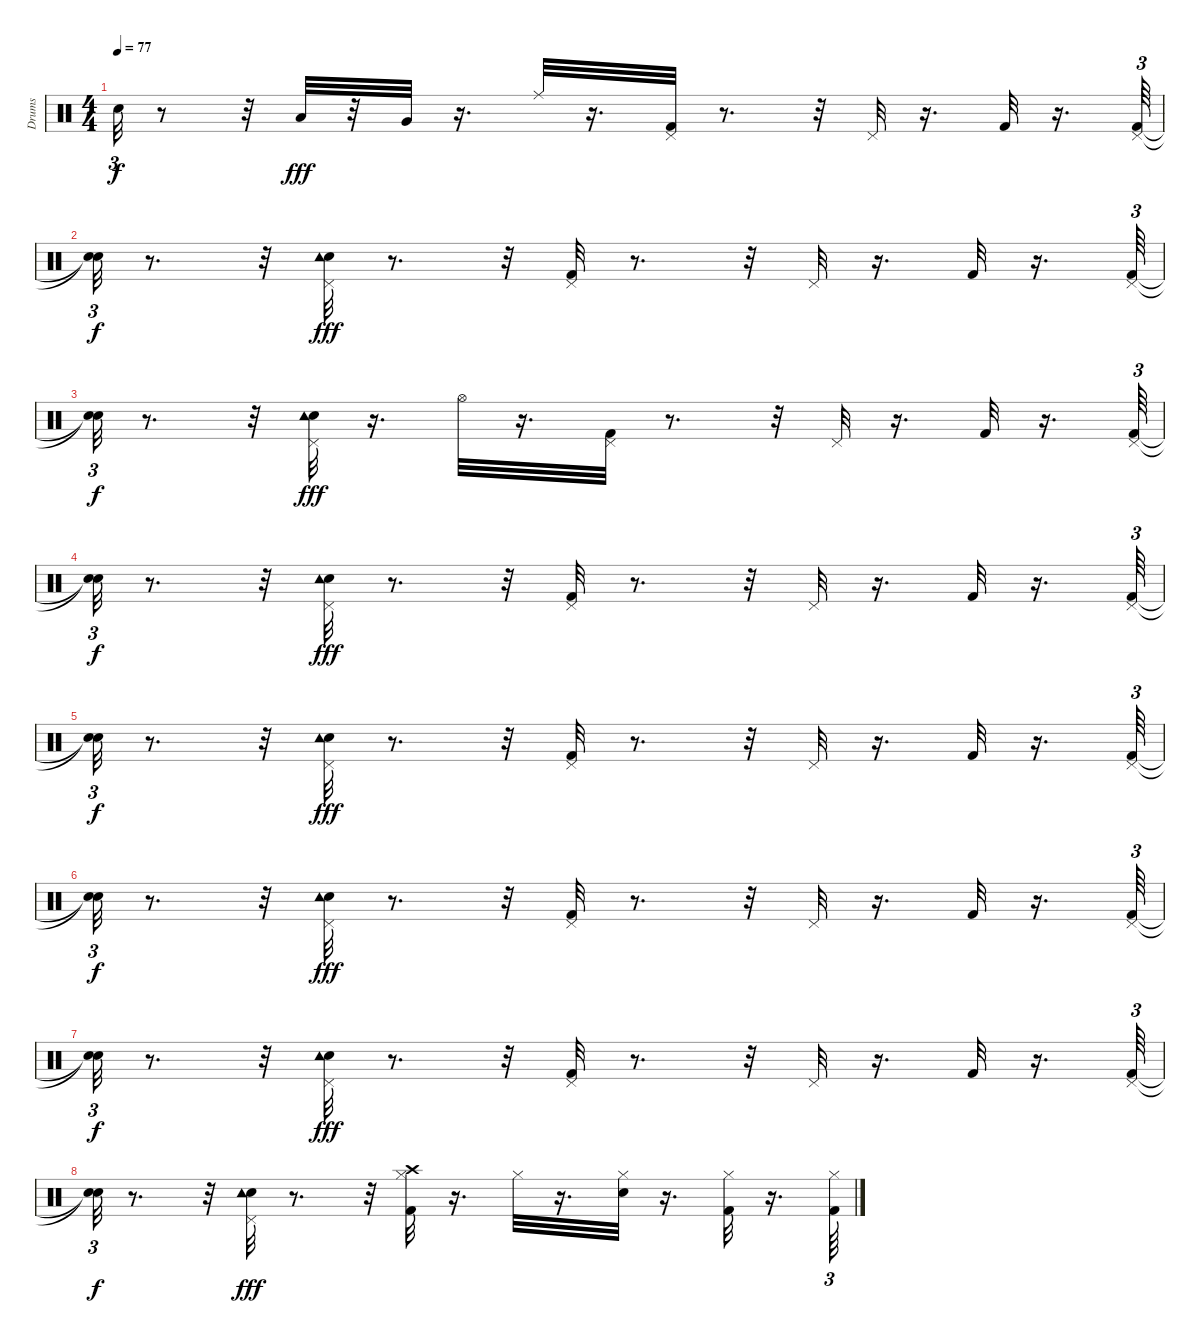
\track ("Drums   " "Drums   ") {instrument percussion}
\staff {score}
\articulation defaults
\ts (4 4)
\tempo 77
\clef neutral
\ks c "Snare (hit)"{t}.32{tu (3 2) dy f}
r.8 r.32 "Low Tom (hit)".32{dy fff} r.32 "Very Low Tom (hit)".32 r.16{d} "Ride (middle)".32 r.16{d} ("Kick (hit) 2" "Pedal Hi-Hat (hit)").32 r.8{d} r.32 "Pedal Hi-Hat (hit)".32 r.16{d} "Kick (hit) 2".32 r.16{d} ("Kick (hit) 2" "Pedal Hi-Hat (hit)").64{tu (3 2)} |
("Snare (hit)"{t} "Snare (hit)"{t}).32{tu (3 2) dy f} r.8{d} r.32 ("Snare (hit) 2" "Pedal Hi-Hat (hit)" "Tambourine (hit)").32{dy fff} r.8{d} r.32 ("Kick (hit) 2" "Pedal Hi-Hat (hit)").32 r.8{d} r.32 "Pedal Hi-Hat (hit)".32 r.16{d} "Kick (hit) 2".32 r.16{d} ("Kick (hit) 2" "Pedal Hi-Hat (hit)").64{tu (3 2)} |
("Snare (hit)"{t} "Snare (hit)"{t}).32{tu (3 2) dy f} r.8{d} r.32 ("Snare (hit) 2" "Pedal Hi-Hat (hit)" "Tambourine (hit)").32{dy fff} r.16{d} "Hi-Hat (open)".32 r.16{d} ("Kick (hit) 2" "Pedal Hi-Hat (hit)").32 r.8{d} r.32 "Pedal Hi-Hat (hit)".32 r.16{d} "Kick (hit) 2".32 r.16{d} ("Kick (hit) 2" "Pedal Hi-Hat (hit)").64{tu (3 2)} |
("Snare (hit)"{t} "Snare (hit)"{t}).32{tu (3 2) dy f} r.8{d} r.32 ("Snare (hit) 2" "Pedal Hi-Hat (hit)" "Tambourine (hit)").32{dy fff} r.8{d} r.32 ("Kick (hit) 2" "Pedal Hi-Hat (hit)").32 r.8{d} r.32 "Pedal Hi-Hat (hit)".32 r.16{d} "Kick (hit) 2".32 r.16{d} ("Kick (hit) 2" "Pedal Hi-Hat (hit)").64{tu (3 2)} |
("Snare (hit)"{t} "Snare (hit)"{t}).32{tu (3 2) dy f} r.8{d} r.32 ("Snare (hit) 2" "Pedal Hi-Hat (hit)" "Tambourine (hit)").32{dy fff} r.8{d} r.32 ("Kick (hit) 2" "Pedal Hi-Hat (hit)").32 r.8{d} r.32 "Pedal Hi-Hat (hit)".32 r.16{d} "Kick (hit) 2".32 r.16{d} ("Kick (hit) 2" "Pedal Hi-Hat (hit)").64{tu (3 2)} |
("Snare (hit)"{t} "Snare (hit)"{t}).32{tu (3 2) dy f} r.8{d} r.32 ("Snare (hit) 2" "Pedal Hi-Hat (hit)" "Tambourine (hit)").32{dy fff} r.8{d} r.32 ("Kick (hit) 2" "Pedal Hi-Hat (hit)").32 r.8{d} r.32 "Pedal Hi-Hat (hit)".32 r.16{d} "Kick (hit) 2".32 r.16{d} ("Kick (hit) 2" "Pedal Hi-Hat (hit)").64{tu (3 2)} |
("Snare (hit)"{t} "Snare (hit)"{t}).32{tu (3 2) dy f} r.8{d} r.32 ("Snare (hit) 2" "Pedal Hi-Hat (hit)" "Tambourine (hit)").32{dy fff} r.8{d} r.32 ("Kick (hit) 2" "Pedal Hi-Hat (hit)").32 r.8{d} r.32 "Pedal Hi-Hat (hit)".32 r.16{d} "Kick (hit) 2".32 r.16{d} ("Kick (hit) 2" "Pedal Hi-Hat (hit)").64{tu (3 2)} |
("Snare (hit)"{t} "Snare (hit)"{t}).32{tu (3 2) dy f} r.8{d} r.32 ("Snare (hit) 2" "Pedal Hi-Hat (hit)" "Tambourine (hit)").32{dy fff} r.8{d} r.32 ("Kick (hit) 2" "Hi-Hat (closed)" "Crash high (hit)").32 r.16{d} "Hi-Hat (closed)".32 r.16{d} ("Snare (hit) 2" "Hi-Hat (closed)").32 r.16{d} ("Kick (hit) 2" "Hi-Hat (closed)").32 r.16{d} ("Kick (hit) 2" "Hi-Hat (closed)").64{tu (3 2)}
